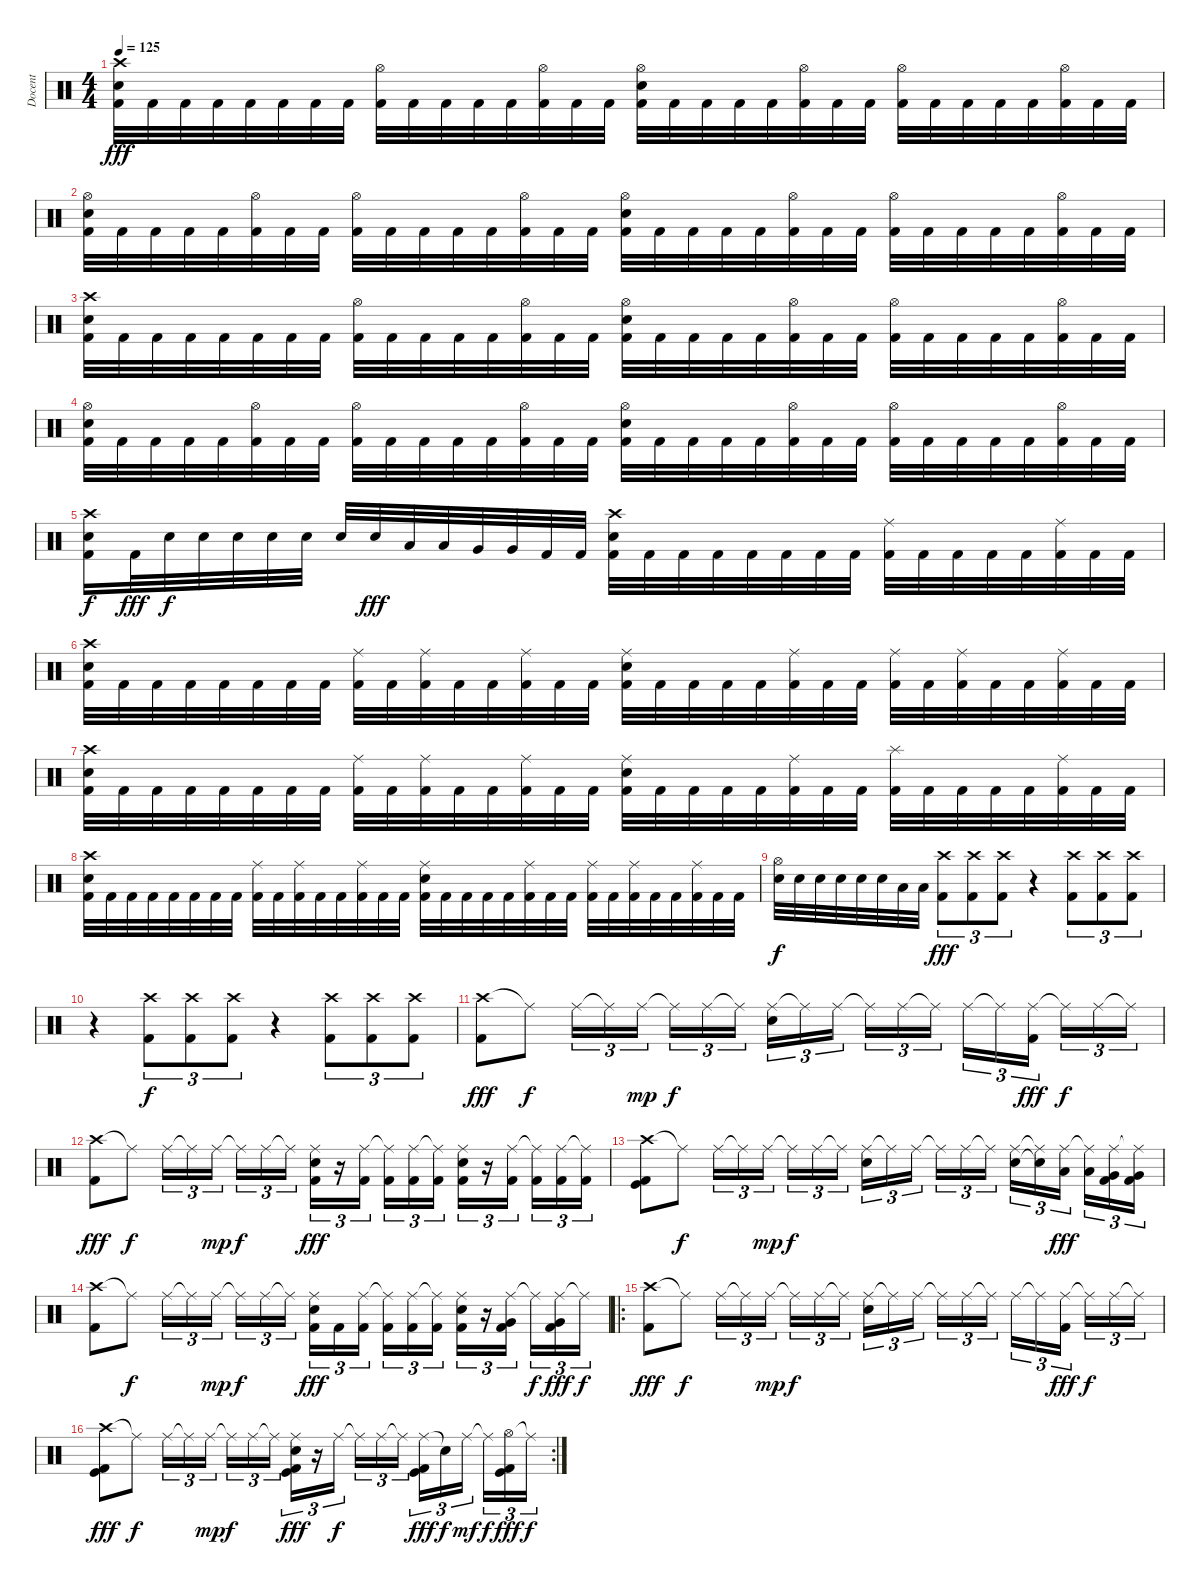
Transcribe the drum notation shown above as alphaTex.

\track ("Docent" "Docent") {instrument percussion}
\staff {score}
\articulation defaults
\ts (4 4)
\tempo 125
\clef neutral
\ks c
("Crash high (hit)" "Electric Snare (hit)" "Kick (hit) 2").32{dy fff} "Kick (hit) 2".32 "Kick (hit) 2".32 "Kick (hit) 2".32 "Kick (hit) 2".32 "Kick (hit) 2".32 "Kick (hit) 2".32 "Kick (hit) 2".32 ("Hi-Hat (open)" "Kick (hit) 2").32 "Kick (hit) 2".32 "Kick (hit) 2".32 "Kick (hit) 2".32 "Kick (hit) 2".32 ("Hi-Hat (open)" "Kick (hit) 2").32 "Kick (hit) 2".32 "Kick (hit) 2".32 ("Hi-Hat (open)" "Electric Snare (hit)" "Kick (hit) 2").32 "Kick (hit) 2".32 "Kick (hit) 2".32 "Kick (hit) 2".32 "Kick (hit) 2".32 ("Hi-Hat (open)" "Kick (hit) 2").32 "Kick (hit) 2".32 "Kick (hit) 2".32 ("Hi-Hat (open)" "Kick (hit) 2").32 "Kick (hit) 2".32 "Kick (hit) 2".32 "Kick (hit) 2".32 "Kick (hit) 2".32 ("Hi-Hat (open)" "Kick (hit) 2").32 "Kick (hit) 2".32 "Kick (hit) 2".32 |
("Hi-Hat (open)" "Electric Snare (hit)" "Kick (hit) 2").32 "Kick (hit) 2".32 "Kick (hit) 2".32 "Kick (hit) 2".32 "Kick (hit) 2".32 ("Hi-Hat (open)" "Kick (hit) 2").32 "Kick (hit) 2".32 "Kick (hit) 2".32 ("Hi-Hat (open)" "Kick (hit) 2").32 "Kick (hit) 2".32 "Kick (hit) 2".32 "Kick (hit) 2".32 "Kick (hit) 2".32 ("Hi-Hat (open)" "Kick (hit) 2").32 "Kick (hit) 2".32 "Kick (hit) 2".32 ("Hi-Hat (open)" "Electric Snare (hit)" "Kick (hit) 2").32 "Kick (hit) 2".32 "Kick (hit) 2".32 "Kick (hit) 2".32 "Kick (hit) 2".32 ("Hi-Hat (open)" "Kick (hit) 2").32 "Kick (hit) 2".32 "Kick (hit) 2".32 ("Hi-Hat (open)" "Kick (hit) 2").32 "Kick (hit) 2".32 "Kick (hit) 2".32 "Kick (hit) 2".32 "Kick (hit) 2".32 ("Hi-Hat (open)" "Kick (hit) 2").32 "Kick (hit) 2".32 "Kick (hit) 2".32 |
("Crash high (hit)" "Electric Snare (hit)" "Kick (hit) 2").32 "Kick (hit) 2".32 "Kick (hit) 2".32 "Kick (hit) 2".32 "Kick (hit) 2".32 "Kick (hit) 2".32 "Kick (hit) 2".32 "Kick (hit) 2".32 ("Hi-Hat (open)" "Kick (hit) 2").32 "Kick (hit) 2".32 "Kick (hit) 2".32 "Kick (hit) 2".32 "Kick (hit) 2".32 ("Hi-Hat (open)" "Kick (hit) 2").32 "Kick (hit) 2".32 "Kick (hit) 2".32 ("Hi-Hat (open)" "Electric Snare (hit)" "Kick (hit) 2").32 "Kick (hit) 2".32 "Kick (hit) 2".32 "Kick (hit) 2".32 "Kick (hit) 2".32 ("Hi-Hat (open)" "Kick (hit) 2").32 "Kick (hit) 2".32 "Kick (hit) 2".32 ("Hi-Hat (open)" "Kick (hit) 2").32 "Kick (hit) 2".32 "Kick (hit) 2".32 "Kick (hit) 2".32 "Kick (hit) 2".32 ("Hi-Hat (open)" "Kick (hit) 2").32 "Kick (hit) 2".32 "Kick (hit) 2".32 |
("Hi-Hat (open)" "Electric Snare (hit)" "Kick (hit) 2").32 "Kick (hit) 2".32 "Kick (hit) 2".32 "Kick (hit) 2".32 "Kick (hit) 2".32 ("Hi-Hat (open)" "Kick (hit) 2").32 "Kick (hit) 2".32 "Kick (hit) 2".32 ("Hi-Hat (open)" "Kick (hit) 2").32 "Kick (hit) 2".32 "Kick (hit) 2".32 "Kick (hit) 2".32 "Kick (hit) 2".32 ("Hi-Hat (open)" "Kick (hit) 2").32 "Kick (hit) 2".32 "Kick (hit) 2".32 ("Hi-Hat (open)" "Electric Snare (hit)" "Kick (hit) 2").32 "Kick (hit) 2".32 "Kick (hit) 2".32 "Kick (hit) 2".32 "Kick (hit) 2".32 ("Hi-Hat (open)" "Kick (hit) 2").32 "Kick (hit) 2".32 "Kick (hit) 2".32 ("Hi-Hat (open)" "Kick (hit) 2").32 "Kick (hit) 2".32 "Kick (hit) 2".32 "Kick (hit) 2".32 "Kick (hit) 2".32 ("Hi-Hat (open)" "Kick (hit) 2").32 "Kick (hit) 2".32 "Kick (hit) 2".32 |
("Crash high (hit)" "Electric Snare (hit)" "Kick (hit) 2").16{dy f} "Kick (hit) 2".32{dy fff} "Electric Snare (hit)".32{dy f} "Electric Snare (hit)".32 "Electric Snare (hit)".32 "Electric Snare (hit)".32 "Electric Snare (hit)".32 "Electric Snare (hit)".32 "Electric Snare (hit)".32{dy fff} "Low Tom (hit)".32 "Low Tom (hit)".32 "Very Low Tom (hit)".32 "Very Low Tom (hit)".32 "Kick (hit) 2".32 "Kick (hit) 2".32 ("Crash high (hit)" "Electric Snare (hit)" "Kick (hit) 2").32 "Kick (hit) 2".32 "Kick (hit) 2".32 "Kick (hit) 2".32 "Kick (hit) 2".32 "Kick (hit) 2".32 "Kick (hit) 2".32 "Kick (hit) 2".32 ("Ride (middle)" "Kick (hit) 2").32 "Kick (hit) 2".32 "Kick (hit) 2".32 "Kick (hit) 2".32 "Kick (hit) 2".32 ("Ride (middle)" "Kick (hit) 2").32 "Kick (hit) 2".32 "Kick (hit) 2".32 |
("Crash high (hit)" "Electric Snare (hit)" "Kick (hit) 2").32 "Kick (hit) 2".32 "Kick (hit) 2".32 "Kick (hit) 2".32 "Kick (hit) 2".32 "Kick (hit) 2".32 "Kick (hit) 2".32 "Kick (hit) 2".32 ("Ride (middle)" "Kick (hit) 2").32 "Kick (hit) 2".32 ("Ride (middle)" "Kick (hit) 2").32 "Kick (hit) 2".32 "Kick (hit) 2".32 ("Ride (middle)" "Kick (hit) 2").32 "Kick (hit) 2".32 "Kick (hit) 2".32 ("Ride (middle)" "Electric Snare (hit)" "Kick (hit) 2").32 "Kick (hit) 2".32 "Kick (hit) 2".32 "Kick (hit) 2".32 "Kick (hit) 2".32 ("Ride (middle)" "Kick (hit) 2").32 "Kick (hit) 2".32 "Kick (hit) 2".32 ("Ride (middle)" "Kick (hit) 2").32 "Kick (hit) 2".32 ("Ride (middle)" "Kick (hit) 2").32 "Kick (hit) 2".32 "Kick (hit) 2".32 ("Ride (middle)" "Kick (hit) 2").32 "Kick (hit) 2".32 "Kick (hit) 2".32 |
("Crash high (hit)" "Electric Snare (hit)" "Kick (hit) 2").32 "Kick (hit) 2".32 "Kick (hit) 2".32 "Kick (hit) 2".32 "Kick (hit) 2".32 "Kick (hit) 2".32 "Kick (hit) 2".32 "Kick (hit) 2".32 ("Ride (middle)" "Kick (hit) 2").32 "Kick (hit) 2".32 ("Ride (middle)" "Kick (hit) 2").32 "Kick (hit) 2".32 "Kick (hit) 2".32 ("Ride (middle)" "Kick (hit) 2").32 "Kick (hit) 2".32 "Kick (hit) 2".32 ("Ride (middle)" "Electric Snare (hit)" "Kick (hit) 2").32 "Kick (hit) 2".32 "Kick (hit) 2".32 "Kick (hit) 2".32 "Kick (hit) 2".32 ("Ride (middle)" "Kick (hit) 2").32 "Kick (hit) 2".32 "Kick (hit) 2".32 ("Splash (hit)" "Kick (hit) 2").32 "Kick (hit) 2".32 "Kick (hit) 2".32 "Kick (hit) 2".32 "Kick (hit) 2".32 ("Ride (middle)" "Kick (hit) 2").32 "Kick (hit) 2".32 "Kick (hit) 2".32 |
("Crash high (hit)" "Electric Snare (hit)" "Kick (hit) 2").32 "Kick (hit) 2".32 "Kick (hit) 2".32 "Kick (hit) 2".32 "Kick (hit) 2".32 "Kick (hit) 2".32 "Kick (hit) 2".32 "Kick (hit) 2".32 ("Ride (middle)" "Kick (hit) 2").32 "Kick (hit) 2".32 ("Ride (middle)" "Kick (hit) 2").32 "Kick (hit) 2".32 "Kick (hit) 2".32 ("Ride (middle)" "Kick (hit) 2").32 "Kick (hit) 2".32 "Kick (hit) 2".32 ("Ride (middle)" "Electric Snare (hit)" "Kick (hit) 2").32 "Kick (hit) 2".32 "Kick (hit) 2".32 "Kick (hit) 2".32 "Kick (hit) 2".32 ("Ride (middle)" "Kick (hit) 2").32 "Kick (hit) 2".32 "Kick (hit) 2".32 ("Ride (middle)" "Kick (hit) 2").32 "Kick (hit) 2".32 ("Ride (middle)" "Kick (hit) 2").32 "Kick (hit) 2".32 "Kick (hit) 2".32 ("Ride (middle)" "Kick (hit) 2").32 "Kick (hit) 2".32 "Kick (hit) 2".32 |
("Hi-Hat (open)" "Electric Snare (hit)").32{dy f} "Electric Snare (hit)".32 "Electric Snare (hit)".32 "Electric Snare (hit)".32 "Electric Snare (hit)".32 "Electric Snare (hit)".32 "Low Tom (hit)".32 "Low Tom (hit)".32 ("Crash high (hit)" "Kick (hit) 2").8{tu (3 2) dy fff} ("Crash high (hit)" "Kick (hit) 2").8{tu (3 2)} ("Crash high (hit)" "Kick (hit) 2").8{tu (3 2)} r.4 ("Crash high (hit)" "Kick (hit) 2").8{tu (3 2)} ("Crash high (hit)" "Kick (hit) 2").8{tu (3 2)} ("Crash high (hit)" "Kick (hit) 2").8{tu (3 2)} |
r.4 ("Crash high (hit)" "Kick (hit) 2").8{tu (3 2) dy f} ("Crash high (hit)" "Kick (hit) 2").8{tu (3 2)} ("Crash high (hit)" "Kick (hit) 2").8{tu (3 2)} r.4 ("Crash high (hit)" "Kick (hit) 2").8{tu (3 2)} ("Crash high (hit)" "Kick (hit) 2").8{tu (3 2)} ("Crash high (hit)" "Kick (hit) 2").8{tu (3 2)} |
("Crash high (hit)" "Kick (hit) 2").8{dy fff} "Ride (middle)"{t}.8{dy f} "Ride (middle)".16{tu (3 2)} "Ride (middle)"{t}.16{tu (3 2)} "Ride (middle)".16{tu (3 2) dy mp} "Ride (middle)"{t}.16{tu (3 2) dy f} "Ride (middle)".16{tu (3 2)} "Ride (middle)"{t}.16{tu (3 2)} ("Ride (middle)" "Electric Snare (hit)").16{tu (3 2)} "Ride (middle)"{t}.16{tu (3 2)} "Ride (middle)".16{tu (3 2)} "Ride (middle)"{t}.16{tu (3 2)} "Ride (middle)".16{tu (3 2)} "Ride (middle)"{t}.16{tu (3 2)} "Ride (middle)".16{tu (3 2)} "Ride (middle)"{t}.16{tu (3 2)} ("Ride (middle)" "Kick (hit) 2").16{tu (3 2) dy fff} "Ride (middle)"{t}.16{tu (3 2) dy f} "Ride (middle)".16{tu (3 2)} "Ride (middle)"{t}.16{tu (3 2)} |
("Crash high (hit)" "Kick (hit) 2").8{dy fff} "Ride (middle)"{t}.8{dy f} "Ride (middle)".16{tu (3 2)} "Ride (middle)"{t}.16{tu (3 2)} "Ride (middle)".16{tu (3 2) dy mp} "Ride (middle)"{t}.16{tu (3 2) dy f} "Ride (middle)".16{tu (3 2)} "Ride (middle)"{t}.16{tu (3 2)} ("Ride (middle)" "Electric Snare (hit)" "Kick (hit) 2").16{tu (3 2) dy fff} r.16{tu (3 2)} ("Ride (middle)" "Kick (hit) 2").16{tu (3 2)} ("Ride (middle)"{t} "Kick (hit) 2").16{tu (3 2)} ("Ride (middle)" "Kick (hit) 2").16{tu (3 2)} ("Ride (middle)"{t} "Kick (hit) 2").16{tu (3 2)} ("Ride (middle)" "Electric Snare (hit)" "Kick (hit) 2").16{tu (3 2)} r.16{tu (3 2)} ("Ride (middle)" "Kick (hit) 2").16{tu (3 2)} ("Ride (middle)"{t} "Kick (hit) 2").16{tu (3 2)} ("Ride (middle)" "Kick (hit) 2").16{tu (3 2)} ("Ride (middle)"{t} "Kick (hit) 2").16{tu (3 2)} |
("Crash high (hit)" "Kick (hit)" "Kick (hit) 2").8 "Ride (middle)"{t}.8{dy f} "Ride (middle)".16{tu (3 2)} "Ride (middle)"{t}.16{tu (3 2)} "Ride (middle)".16{tu (3 2) dy mp} "Ride (middle)"{t}.16{tu (3 2) dy f} "Ride (middle)".16{tu (3 2)} "Ride (middle)"{t}.16{tu (3 2)} ("Ride (middle)" "Electric Snare (hit)").16{tu (3 2)} "Ride (middle)"{t}.16{tu (3 2)} "Ride (middle)".16{tu (3 2)} "Ride (middle)"{t}.16{tu (3 2)} "Ride (middle)".16{tu (3 2)} "Ride (middle)"{t}.16{tu (3 2)} ("Ride (middle)" "Electric Snare (hit)").16{tu (3 2)} ("Ride (middle)"{t} "Electric Snare (hit)"{t}).16{tu (3 2)} ("Ride (middle)" "Low Tom (hit)").16{tu (3 2) dy fff} ("Ride (middle)"{t} "Low Tom (hit)").16{tu (3 2)} ("Ride (middle)" "Very Low Tom (hit)" "Kick (hit) 2").16{tu (3 2)} ("Ride (middle)"{t} "Very Low Tom (hit)" "Kick (hit) 2").16{tu (3 2)} |
("Crash high (hit)" "Kick (hit) 2").8 "Ride (middle)"{t}.8{dy f} "Ride (middle)".16{tu (3 2)} "Ride (middle)"{t}.16{tu (3 2)} "Ride (middle)".16{tu (3 2) dy mp} "Ride (middle)"{t}.16{tu (3 2) dy f} "Ride (middle)".16{tu (3 2)} "Ride (middle)"{t}.16{tu (3 2)} ("Ride (middle)" "Electric Snare (hit)" "Kick (hit) 2").16{tu (3 2) dy fff} "Kick (hit) 2".16{tu (3 2)} ("Ride (middle)" "Kick (hit) 2").16{tu (3 2)} ("Ride (middle)"{t} "Kick (hit) 2").16{tu (3 2)} ("Ride (middle)" "Kick (hit) 2").16{tu (3 2)} ("Ride (middle)"{t} "Kick (hit) 2").16{tu (3 2)} ("Ride (middle)" "Electric Snare (hit)" "Kick (hit) 2").16{tu (3 2)} r.16{tu (3 2)} ("Ride (middle)" "Very Low Tom (hit)" "Kick (hit) 2").16{tu (3 2)} "Ride (middle)"{t}.16{tu (3 2) dy f} ("Ride (middle)" "Very Low Tom (hit)" "Kick (hit) 2").16{tu (3 2) dy fff} "Ride (middle)"{t}.16{tu (3 2) dy f} |
\ro
("Crash high (hit)" "Kick (hit) 2").8{dy fff} "Ride (middle)"{t}.8{dy f} "Ride (middle)".16{tu (3 2)} "Ride (middle)"{t}.16{tu (3 2)} "Ride (middle)".16{tu (3 2) dy mp} "Ride (middle)"{t}.16{tu (3 2) dy f} "Ride (middle)".16{tu (3 2)} "Ride (middle)"{t}.16{tu (3 2)} ("Ride (middle)" "Electric Snare (hit)").16{tu (3 2)} "Ride (middle)"{t}.16{tu (3 2)} "Ride (middle)".16{tu (3 2)} "Ride (middle)"{t}.16{tu (3 2)} "Ride (middle)".16{tu (3 2)} "Ride (middle)"{t}.16{tu (3 2)} "Ride (middle)".16{tu (3 2)} "Ride (middle)"{t}.16{tu (3 2)} ("Ride (middle)" "Kick (hit) 2").16{tu (3 2) dy fff} "Ride (middle)"{t}.16{tu (3 2) dy f} "Ride (middle)".16{tu (3 2)} "Ride (middle)"{t}.16{tu (3 2)} |
\rc 2
("Crash high (hit)" "Kick (hit)" "Kick (hit) 2").8{dy fff} "Ride (middle)"{t}.8{dy f} "Ride (middle)".16{tu (3 2)} "Ride (middle)"{t}.16{tu (3 2)} "Ride (middle)".16{tu (3 2) dy mp} "Ride (middle)"{t}.16{tu (3 2) dy f} "Ride (middle)".16{tu (3 2)} "Ride (middle)"{t}.16{tu (3 2)} ("Ride (middle)" "Electric Snare (hit)" "Kick (hit)" "Kick (hit) 2").16{tu (3 2) dy fff} r.16{tu (3 2)} "Ride (middle)".16{tu (3 2) dy f} "Ride (middle)"{t}.16{tu (3 2)} "Ride (middle)".16{tu (3 2)} "Ride (middle)"{t}.16{tu (3 2)} ("Ride (middle)" "Kick (hit)" "Kick (hit) 2").16{tu (3 2) dy fff} "Snare (hit)"{t}.16{tu (3 2) dy f} "Ride (middle)".16{tu (3 2) dy mf} "Ride (middle)"{t}.16{tu (3 2) dy f} ("Hi-Hat (open)" "Kick (hit)" "Kick (hit) 2").16{tu (3 2) dy fff} "Ride (middle)"{t}.16{tu (3 2) dy f}
